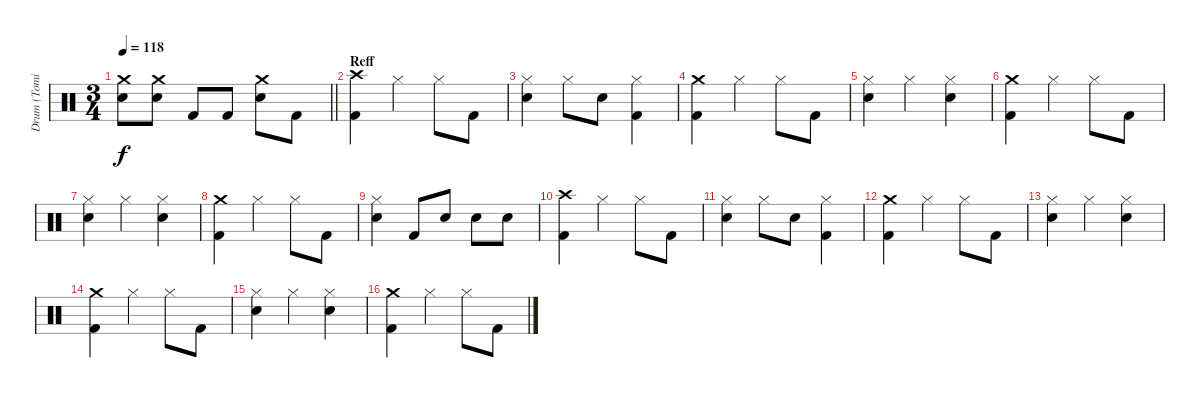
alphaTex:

\track ("Drum (Tomi)" "Drum (Tomi") {instrument percussion}
\staff {score}
\articulation defaults
\ts (3 4)
\tempo 118
\clef neutral
\barLineRight lightlight
\ks c
("Crash medium (hit)" "Electric Snare (hit)").8{dy f} ("Crash medium (hit)" "Electric Snare (hit)").8 "Kick (hit) 2".8 "Kick (hit) 2".8 ("Crash medium (hit)" "Electric Snare (hit)").8 "Kick (hit) 2".8 |
\section ("" "Reff")
("Crash high (hit)" "Kick (hit) 2").4 "Hi-Hat (closed)".4 "Hi-Hat (closed)".8 "Kick (hit) 2".8 |
("Hi-Hat (closed)" "Electric Snare (hit)").4 "Hi-Hat (closed)".8 "Electric Snare (hit)".8 ("Hi-Hat (closed)" "Kick (hit) 2").4 |
("Crash medium (hit)" "Kick (hit) 2").4 "Hi-Hat (closed)".4 "Hi-Hat (closed)".8 "Kick (hit) 2".8 |
("Hi-Hat (closed)" "Electric Snare (hit)").4 "Hi-Hat (closed)".4 ("Hi-Hat (closed)" "Electric Snare (hit)").4 |
("Crash medium (hit)" "Kick (hit) 2").4 "Hi-Hat (closed)".4 "Hi-Hat (closed)".8 "Kick (hit) 2".8 |
("Hi-Hat (closed)" "Electric Snare (hit)").4 "Hi-Hat (closed)".4 ("Hi-Hat (closed)" "Electric Snare (hit)").4 |
("Crash medium (hit)" "Kick (hit) 2").4 "Hi-Hat (closed)".4 "Hi-Hat (closed)".8 "Kick (hit) 2".8 |
("Hi-Hat (closed)" "Electric Snare (hit)").4 "Kick (hit) 2".8 "Electric Snare (hit)".8 "Electric Snare (hit)".8 "Electric Snare (hit)".8 |
("Crash high (hit)" "Kick (hit) 2").4 "Hi-Hat (closed)".4 "Hi-Hat (closed)".8 "Kick (hit) 2".8 |
("Hi-Hat (closed)" "Electric Snare (hit)").4 "Hi-Hat (closed)".8 "Electric Snare (hit)".8 ("Hi-Hat (closed)" "Kick (hit) 2").4 |
("Crash medium (hit)" "Kick (hit) 2").4 "Hi-Hat (closed)".4 "Hi-Hat (closed)".8 "Kick (hit) 2".8 |
("Hi-Hat (closed)" "Electric Snare (hit)").4 "Hi-Hat (closed)".4 ("Hi-Hat (closed)" "Electric Snare (hit)").4 |
("Crash medium (hit)" "Kick (hit) 2").4 "Hi-Hat (closed)".4 "Hi-Hat (closed)".8 "Kick (hit) 2".8 |
("Hi-Hat (closed)" "Electric Snare (hit)").4 "Hi-Hat (closed)".4 ("Hi-Hat (closed)" "Electric Snare (hit)").4 |
("Crash medium (hit)" "Kick (hit) 2").4 "Hi-Hat (closed)".4 "Hi-Hat (closed)".8 "Kick (hit) 2".8
